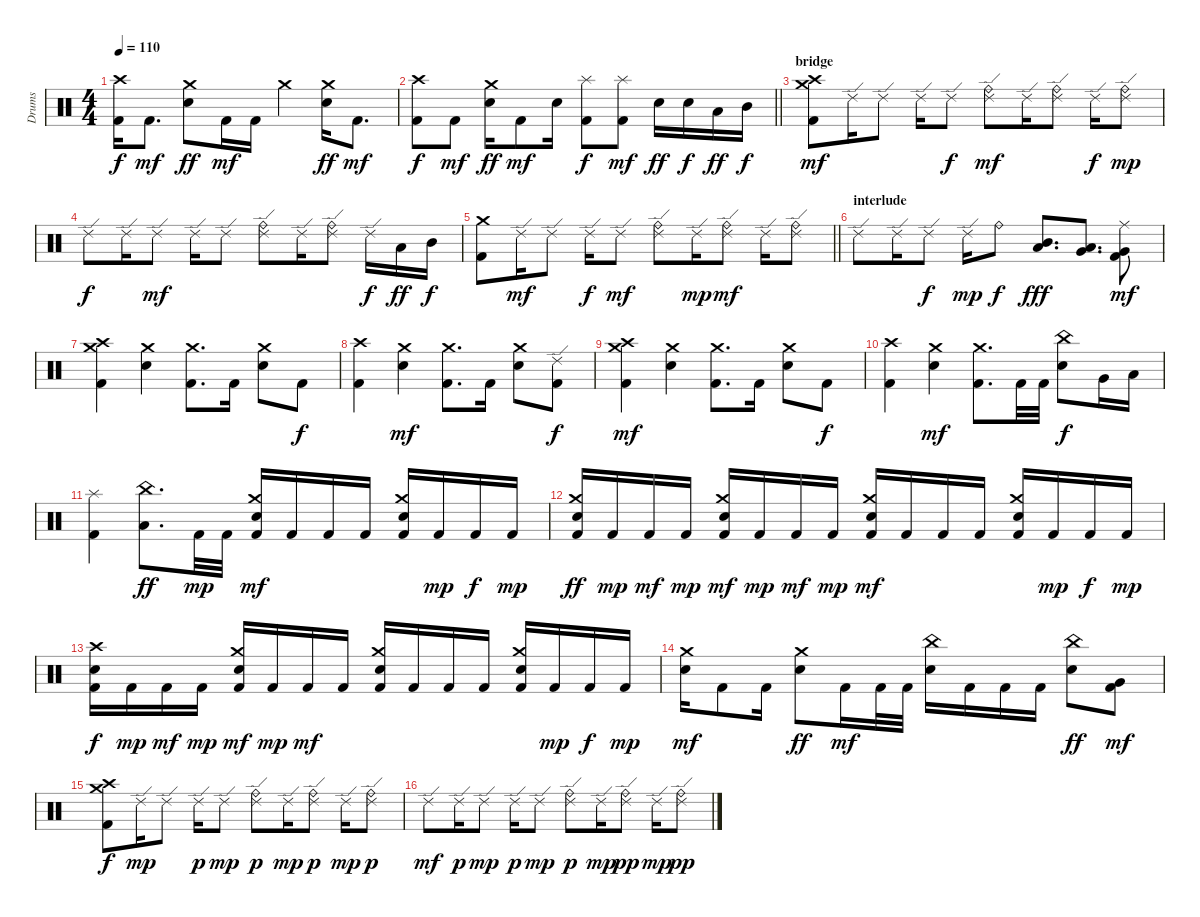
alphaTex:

\track ("Drums" "Drums") {instrument percussion}
\staff {score}
\articulation defaults
\ts (4 4)
\tempo 110
\clef neutral
\ks c
("Crash high (hit)" "Kick (hit) 2").16{dy f} "Kick (hit) 2".8{d dy mf} ("Crash medium (hit)" "Snare (hit) 2").8{dy ff} "Kick (hit) 2".16{dy mf} "Kick (hit) 2".16 "Crash medium (hit)".4 ("Crash medium (hit)" "Snare (hit) 2").16{dy ff} "Kick (hit) 2".8{d dy mf} |
\barLineRight lightlight
("Crash high (hit)" "Kick (hit) 2").8{dy f} "Kick (hit) 2".8{dy mf} ("Crash medium (hit)" "Snare (hit) 2").16{dy ff} "Kick (hit) 2".8{dy mf} "Snare (hit) 2".16 ("Splash (hit)" "Kick (hit) 2").8{dy f} ("Splash (hit)" "Kick (hit) 2").8{dy mf} "Snare (hit) 2".16{dy ff} "Snare (hit) 2".16{dy f} "Low Tom (hit)".16{dy ff} "Mid Tom (hit)".16{dy f} |
\section ("" "bridge")
("Crash medium (hit)" "Crash high (hit)" "Kick (hit) 2").8{dy mf} "Ride (edge) 2".16 "Ride (edge) 2".8 "Ride (edge) 2".16 "Ride (edge) 2".8{dy f} ("Ride (bell)" "Ride (edge) 2").8{dy mf} "Ride (edge) 2".16 ("Ride (bell)" "Ride (edge) 2").8 "Ride (edge) 2".16{dy f} ("Ride (bell)" "Ride (edge) 2").8{dy mp} |
"Ride (edge) 2".8{dy f} "Ride (edge) 2".16 "Ride (edge) 2".8{dy mf} "Ride (edge) 2".16 "Ride (edge) 2".8 ("Ride (bell)" "Ride (edge) 2").8 "Ride (edge) 2".16 ("Ride (bell)" "Ride (edge) 2").8 "Ride (edge) 2".16{dy f} "Low Tom (hit)".16{dy ff} "Mid Tom (hit)".16{dy f} |
\barLineRight lightlight
("Crash medium (hit)" "Kick (hit) 2").8 "Ride (edge) 2".16{dy mf} "Ride (edge) 2".8 "Ride (edge) 2".16{dy f} "Ride (edge) 2".8{dy mf} ("Ride (bell)" "Ride (edge) 2").8 "Ride (edge) 2".16{dy mp} ("Ride (bell)" "Ride (edge) 2").8{dy mf} "Ride (edge) 2".16 ("Ride (bell)" "Ride (edge) 2").8 |
\section ("" "interlude")
"Ride (edge) 2".8 "Ride (edge) 2".16 "Ride (edge) 2".8{dy f} "Ride (edge) 2".16{dy mp} "Ride (bell)".8{dy f} ("Low Tom (hit)" "Mid Tom (hit)").8{d dy fff} ("Very Low Tom (hit)" "Low Tom (hit)").8{d} ("Very Low Tom (hit)" "Ride (middle)" "Kick (hit) 2").8{dy mf} |
("Crash medium (hit)" "Crash high (hit)" "Kick (hit) 2").4 ("Crash medium (hit)" "Snare (hit) 2").4 ("Crash medium (hit)" "Kick (hit) 2").8{d} "Kick (hit) 2".16 ("Crash medium (hit)" "Snare (hit) 2").8 "Kick (hit) 2".8{dy f} |
("Crash high (hit)" "Kick (hit) 2").4 ("Crash medium (hit)" "Snare (hit) 2").4{dy mf} ("Crash medium (hit)" "Kick (hit) 2").8{d} "Kick (hit) 2".16 ("Crash medium (hit)" "Snare (hit) 2").8 ("Ride (edge) 2" "Kick (hit) 2").8{dy f} |
("Crash medium (hit)" "Crash high (hit)" "Kick (hit) 2").4{dy mf} ("Crash medium (hit)" "Snare (hit) 2").4 ("Crash medium (hit)" "Kick (hit) 2").8{d} "Kick (hit) 2".16 ("Crash medium (hit)" "Snare (hit) 2").8 "Kick (hit) 2".8{dy f} |
("Crash high (hit)" "Kick (hit) 2").4 ("Crash medium (hit)" "Snare (hit) 2").4{dy mf} ("Crash medium (hit)" "Kick (hit) 2").8{d} "Kick (hit) 2".32 "Kick (hit) 2".32 ("China (hit)" "Snare (hit) 2").8{dy f} "Very Low Tom (hit)".16 "Low Tom (hit)".16 |
("Splash (hit)" "Kick (hit) 2").4 ("Low Tom (hit)" "China (hit)").8{d dy ff} "Kick (hit) 2".32{dy mp} "Kick (hit) 2".32 ("Crash medium (hit)" "Snare (hit) 2" "Kick (hit) 2").16{dy mf} "Kick (hit) 2".16 "Kick (hit) 2".16 "Kick (hit) 2".16 ("Crash medium (hit)" "Snare (hit) 2" "Kick (hit) 2").16 "Kick (hit) 2".16{dy mp} "Kick (hit) 2".16{dy f} "Kick (hit) 2".16{dy mp} |
("Crash medium (hit)" "Snare (hit) 2" "Kick (hit) 2").16{dy ff} "Kick (hit) 2".16{dy mp} "Kick (hit) 2".16{dy mf} "Kick (hit) 2".16{dy mp} ("Crash medium (hit)" "Snare (hit) 2" "Kick (hit) 2").16{dy mf} "Kick (hit) 2".16{dy mp} "Kick (hit) 2".16{dy mf} "Kick (hit) 2".16{dy mp} ("Crash medium (hit)" "Snare (hit) 2" "Kick (hit) 2").16{dy mf} "Kick (hit) 2".16 "Kick (hit) 2".16 "Kick (hit) 2".16 ("Crash medium (hit)" "Snare (hit) 2" "Kick (hit) 2").16 "Kick (hit) 2".16{dy mp} "Kick (hit) 2".16{dy f} "Kick (hit) 2".16{dy mp} |
("Crash high (hit)" "Snare (hit) 2" "Kick (hit) 2").16{dy f} "Kick (hit) 2".16{dy mp} "Kick (hit) 2".16{dy mf} "Kick (hit) 2".16{dy mp} ("Crash medium (hit)" "Snare (hit) 2" "Kick (hit) 2").16{dy mf} "Kick (hit) 2".16{dy mp} "Kick (hit) 2".16{dy mf} "Kick (hit) 2".16 ("Crash medium (hit)" "Snare (hit) 2" "Kick (hit) 2").16 "Kick (hit) 2".16 "Kick (hit) 2".16 "Kick (hit) 2".16 ("Crash medium (hit)" "Snare (hit) 2" "Kick (hit) 2").16 "Kick (hit) 2".16{dy mp} "Kick (hit) 2".16{dy f} "Kick (hit) 2".16{dy mp} |
("Crash medium (hit)" "Snare (hit) 2").16{dy mf} "Kick (hit) 2".8 "Kick (hit) 2".16 ("Crash medium (hit)" "Snare (hit) 2").8{dy ff} "Kick (hit) 2".16{dy mf} "Kick (hit) 2".32 "Kick (hit) 2".32 ("China (hit)" "Snare (hit) 2").16 "Kick (hit) 2".16 "Kick (hit) 2".16 "Kick (hit) 2".16 ("China (hit)" "Snare (hit) 2").8{dy ff} ("Very Low Tom (hit)" "Kick (hit) 2").8{dy mf} |
("Crash medium (hit)" "Crash high (hit)" "Kick (hit) 2").8{dy f} "Ride (edge) 2".16{dy mp} "Ride (edge) 2".8 "Ride (edge) 2".16{dy p} "Ride (edge) 2".8{dy mp} ("Ride (bell)" "Ride (edge) 2").8{dy p} "Ride (edge) 2".16{dy mp} ("Ride (bell)" "Ride (edge) 2").8{dy p} "Ride (edge) 2".16{dy mp} ("Ride (bell)" "Ride (edge) 2").8{dy p} |
"Ride (edge) 2".8{dy mf} "Ride (edge) 2".16{dy p} "Ride (edge) 2".8{dy mp} "Ride (edge) 2".16{dy p} "Ride (edge) 2".8{dy mp} ("Ride (bell)" "Ride (edge) 2").8{dy p} "Ride (edge) 2".16{dy mp} ("Ride (bell)" "Ride (edge) 2").8{dy pp} "Ride (edge) 2".16{dy mp} ("Ride (bell)" "Ride (edge) 2").8{dy pp}
